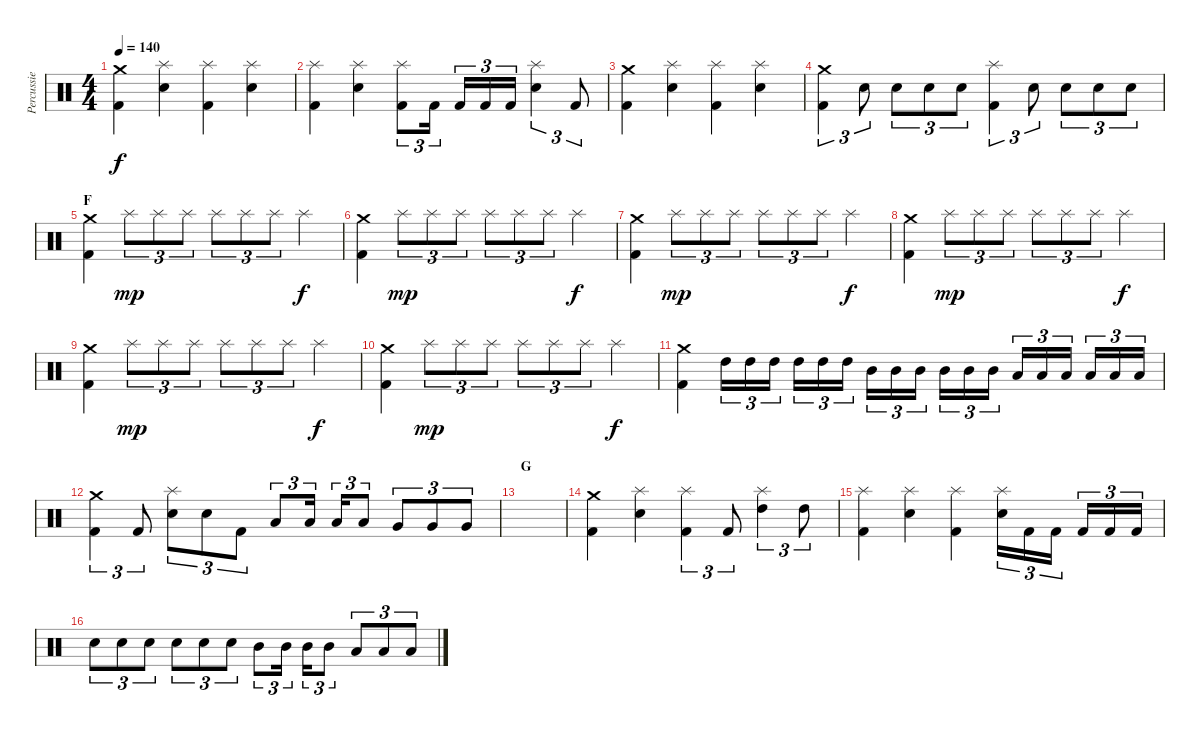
\track ("Percussie" "Percussie") {instrument percussion}
\staff {score}
\articulation defaults
\ts (4 4)
\tempo 140
\clef neutral
\ks c
("Crash medium (hit)" "Kick (hit) 2").4{dy f} ("Splash (hit)" "Electric Snare (hit)").4 ("Splash (hit)" "Kick (hit) 2").4 ("Splash (hit)" "Electric Snare (hit)").4 |
("Splash (hit)" "Kick (hit) 2").4 ("Splash (hit)" "Electric Snare (hit)").4 ("Splash (hit)" "Kick (hit) 2").8{tu (3 2)} "Kick (hit) 2".16{tu (3 2)} "Kick (hit) 2".16{tu (3 2)} "Kick (hit) 2".16{tu (3 2)} "Kick (hit) 2".16{tu (3 2)} ("Splash (hit)" "Electric Snare (hit)").4{tu (3 2)} "Kick (hit) 2".8{tu (3 2)} |
("Crash medium (hit)" "Kick (hit) 2").4 ("Splash (hit)" "Electric Snare (hit)").4 ("Splash (hit)" "Kick (hit) 2").4 ("Splash (hit)" "Electric Snare (hit)").4 |
("Crash medium (hit)" "Kick (hit) 2").4{tu (3 2)} "Electric Snare (hit)".8{tu (3 2)} "Electric Snare (hit)".8{tu (3 2)} "Electric Snare (hit)".8{tu (3 2)} "Electric Snare (hit)".8{tu (3 2)} ("Splash (hit)" "Kick (hit) 2").4{tu (3 2)} "Electric Snare (hit)".8{tu (3 2)} "Electric Snare (hit)".8{tu (3 2)} "Electric Snare (hit)".8{tu (3 2)} "Electric Snare (hit)".8{tu (3 2)} |
\section ("" "F")
("Crash medium (hit)" "Kick (hit) 2").4 "Splash (hit)".8{tu (3 2) dy mp} "Splash (hit)".8{tu (3 2)} "Splash (hit)".8{tu (3 2)} "Splash (hit)".8{tu (3 2)} "Splash (hit)".8{tu (3 2)} "Splash (hit)".8{tu (3 2)} "Splash (hit)".4{dy f} |
("Crash medium (hit)" "Kick (hit) 2").4 "Splash (hit)".8{tu (3 2) dy mp} "Splash (hit)".8{tu (3 2)} "Splash (hit)".8{tu (3 2)} "Splash (hit)".8{tu (3 2)} "Splash (hit)".8{tu (3 2)} "Splash (hit)".8{tu (3 2)} "Splash (hit)".4{dy f} |
("Crash medium (hit)" "Kick (hit) 2").4 "Splash (hit)".8{tu (3 2) dy mp} "Splash (hit)".8{tu (3 2)} "Splash (hit)".8{tu (3 2)} "Splash (hit)".8{tu (3 2)} "Splash (hit)".8{tu (3 2)} "Splash (hit)".8{tu (3 2)} "Splash (hit)".4{dy f} |
("Crash medium (hit)" "Kick (hit) 2").4 "Splash (hit)".8{tu (3 2) dy mp} "Splash (hit)".8{tu (3 2)} "Splash (hit)".8{tu (3 2)} "Splash (hit)".8{tu (3 2)} "Splash (hit)".8{tu (3 2)} "Splash (hit)".8{tu (3 2)} "Splash (hit)".4{dy f} |
("Crash medium (hit)" "Kick (hit) 2").4 "Splash (hit)".8{tu (3 2) dy mp} "Splash (hit)".8{tu (3 2)} "Splash (hit)".8{tu (3 2)} "Splash (hit)".8{tu (3 2)} "Splash (hit)".8{tu (3 2)} "Splash (hit)".8{tu (3 2)} "Splash (hit)".4{dy f} |
("Crash medium (hit)" "Kick (hit) 2").4 "Splash (hit)".8{tu (3 2) dy mp} "Splash (hit)".8{tu (3 2)} "Splash (hit)".8{tu (3 2)} "Splash (hit)".8{tu (3 2)} "Splash (hit)".8{tu (3 2)} "Splash (hit)".8{tu (3 2)} "Splash (hit)".4{dy f} |
("Crash medium (hit)" "Kick (hit) 2").4 "High Tom (hit)".16{tu (3 2)} "High Tom (hit)".16{tu (3 2)} "High Tom (hit)".16{tu (3 2)} "High Tom (hit)".16{tu (3 2)} "High Tom (hit)".16{tu (3 2)} "High Tom (hit)".16{tu (3 2)} "Mid Tom (hit)".16{tu (3 2)} "Mid Tom (hit)".16{tu (3 2)} "Mid Tom (hit)".16{tu (3 2)} "Mid Tom (hit)".16{tu (3 2)} "Mid Tom (hit)".16{tu (3 2)} "Mid Tom (hit)".16{tu (3 2)} "Low Tom (hit)".16{tu (3 2)} "Low Tom (hit)".16{tu (3 2)} "Low Tom (hit)".16{tu (3 2)} "Low Tom (hit)".16{tu (3 2)} "Low Tom (hit)".16{tu (3 2)} "Low Tom (hit)".16{tu (3 2)} |
("Crash medium (hit)" "Kick (hit) 2").4{tu (3 2)} "Kick (hit) 2".8{tu (3 2)} ("Splash (hit)" "Electric Snare (hit)").8{tu (3 2)} "Electric Snare (hit)".8{tu (3 2)} "Kick (hit) 2".8{tu (3 2)} "Low Tom (hit)".8{tu (3 2)} "Low Tom (hit)".16{tu (3 2)} "Low Tom (hit)".16{tu (3 2)} "Low Tom (hit)".8{tu (3 2)} "Very Low Tom (hit)".8{tu (3 2)} "Very Low Tom (hit)".8{tu (3 2)} "Very Low Tom (hit)".8{tu (3 2)} |
\section ("" "G")
|
("Crash medium (hit)" "Kick (hit) 2").4 ("Splash (hit)" "Electric Snare (hit)").4 ("Splash (hit)" "Kick (hit) 2").4{tu (3 2)} "Kick (hit) 2".8{tu (3 2)} ("Splash (hit)" "High Tom (hit)").4{tu (3 2)} "High Tom (hit)".8{tu (3 2)} |
("Splash (hit)" "Kick (hit) 2").4 ("Splash (hit)" "Electric Snare (hit)").4 ("Splash (hit)" "Kick (hit) 2").4 ("Splash (hit)" "Electric Snare (hit)").16{tu (3 2)} "Kick (hit) 2".16{tu (3 2)} "Kick (hit) 2".16{tu (3 2)} "Kick (hit) 2".16{tu (3 2)} "Kick (hit) 2".16{tu (3 2)} "Kick (hit) 2".16{tu (3 2)} |
"Electric Snare (hit)".8{tu (3 2)} "Electric Snare (hit)".8{tu (3 2)} "Electric Snare (hit)".8{tu (3 2)} "Electric Snare (hit)".8{tu (3 2)} "Electric Snare (hit)".8{tu (3 2)} "Electric Snare (hit)".8{tu (3 2)} "Mid Tom (hit)".8{tu (3 2)} "Mid Tom (hit)".16{tu (3 2)} "Mid Tom (hit)".16{tu (3 2)} "Mid Tom (hit)".8{tu (3 2)} "Low Tom (hit)".8{tu (3 2)} "Low Tom (hit)".8{tu (3 2)} "Low Tom (hit)".8{tu (3 2)}
